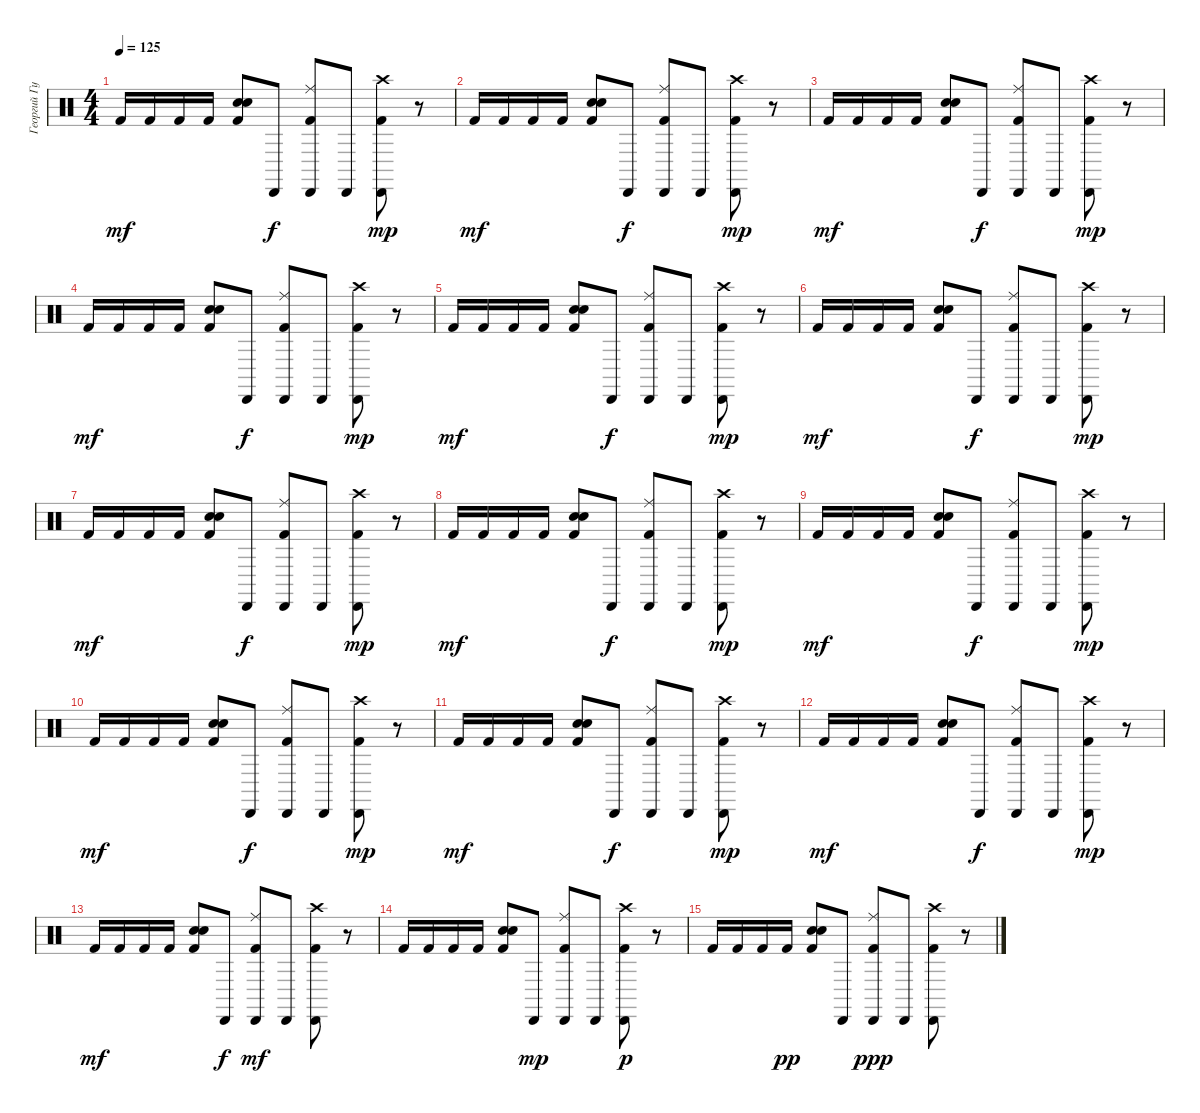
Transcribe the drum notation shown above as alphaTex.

\track ("Георгий Гурьянов" "Георгий Гу") {instrument percussion}
\staff {score}
\articulation defaults
\ts (4 4)
\tempo 125
\clef neutral
\ks c "Kick (hit) 2".16{dy mf} "Kick (hit) 2".16 "Kick (hit) 2".16 "Kick (hit) 2".16
("Kick (hit) 2" "Snare (hit) 2" "Electric Snare (hit)").8 "Cabasa (hit)".8{dy f} ("Kick (hit) 2" "Cabasa (hit)" "Ride (middle)").8 "Cabasa (hit)".8 ("Kick (hit) 2" "Cabasa (hit)" "Crash high (hit)").8{dy mp} r.8 |
"Kick (hit) 2".16{dy mf} "Kick (hit) 2".16 "Kick (hit) 2".16 "Kick (hit) 2".16 ("Kick (hit) 2" "Snare (hit) 2" "Electric Snare (hit)").8 "Cabasa (hit)".8{dy f} ("Kick (hit) 2" "Cabasa (hit)" "Ride (middle)").8 "Cabasa (hit)".8 ("Kick (hit) 2" "Cabasa (hit)" "Crash high (hit)").8{dy mp} r.8 |
"Kick (hit) 2".16{dy mf} "Kick (hit) 2".16 "Kick (hit) 2".16 "Kick (hit) 2".16 ("Kick (hit) 2" "Snare (hit) 2" "Electric Snare (hit)").8 "Cabasa (hit)".8{dy f} ("Kick (hit) 2" "Cabasa (hit)" "Ride (middle)").8 "Cabasa (hit)".8 ("Kick (hit) 2" "Cabasa (hit)" "Crash high (hit)").8{dy mp} r.8 |
"Kick (hit) 2".16{dy mf} "Kick (hit) 2".16 "Kick (hit) 2".16 "Kick (hit) 2".16 ("Kick (hit) 2" "Snare (hit) 2" "Electric Snare (hit)").8 "Cabasa (hit)".8{dy f} ("Kick (hit) 2" "Cabasa (hit)" "Ride (middle)").8 "Cabasa (hit)".8 ("Kick (hit) 2" "Cabasa (hit)" "Crash high (hit)").8{dy mp} r.8 |
"Kick (hit) 2".16{dy mf} "Kick (hit) 2".16 "Kick (hit) 2".16 "Kick (hit) 2".16 ("Kick (hit) 2" "Snare (hit) 2" "Electric Snare (hit)").8 "Cabasa (hit)".8{dy f} ("Kick (hit) 2" "Cabasa (hit)" "Ride (middle)").8 "Cabasa (hit)".8 ("Kick (hit) 2" "Cabasa (hit)" "Crash high (hit)").8{dy mp} r.8 |
"Kick (hit) 2".16{dy mf} "Kick (hit) 2".16 "Kick (hit) 2".16 "Kick (hit) 2".16 ("Kick (hit) 2" "Snare (hit) 2" "Electric Snare (hit)").8 "Cabasa (hit)".8{dy f} ("Kick (hit) 2" "Cabasa (hit)" "Ride (middle)").8 "Cabasa (hit)".8 ("Kick (hit) 2" "Cabasa (hit)" "Crash high (hit)").8{dy mp} r.8 |
"Kick (hit) 2".16{dy mf} "Kick (hit) 2".16 "Kick (hit) 2".16 "Kick (hit) 2".16 ("Kick (hit) 2" "Snare (hit) 2" "Electric Snare (hit)").8 "Cabasa (hit)".8{dy f} ("Kick (hit) 2" "Cabasa (hit)" "Ride (middle)").8 "Cabasa (hit)".8 ("Kick (hit) 2" "Cabasa (hit)" "Crash high (hit)").8{dy mp} r.8 |
"Kick (hit) 2".16{dy mf} "Kick (hit) 2".16 "Kick (hit) 2".16 "Kick (hit) 2".16 ("Kick (hit) 2" "Snare (hit) 2" "Electric Snare (hit)").8 "Cabasa (hit)".8{dy f} ("Kick (hit) 2" "Cabasa (hit)" "Ride (middle)").8 "Cabasa (hit)".8 ("Kick (hit) 2" "Cabasa (hit)" "Crash high (hit)").8{dy mp} r.8 |
"Kick (hit) 2".16{dy mf} "Kick (hit) 2".16 "Kick (hit) 2".16 "Kick (hit) 2".16 ("Kick (hit) 2" "Snare (hit) 2" "Electric Snare (hit)").8 "Cabasa (hit)".8{dy f} ("Kick (hit) 2" "Cabasa (hit)" "Ride (middle)").8 "Cabasa (hit)".8 ("Kick (hit) 2" "Cabasa (hit)" "Crash high (hit)").8{dy mp} r.8 |
"Kick (hit) 2".16{dy mf} "Kick (hit) 2".16 "Kick (hit) 2".16 "Kick (hit) 2".16 ("Kick (hit) 2" "Snare (hit) 2" "Electric Snare (hit)").8 "Cabasa (hit)".8{dy f} ("Kick (hit) 2" "Cabasa (hit)" "Ride (middle)").8 "Cabasa (hit)".8 ("Kick (hit) 2" "Cabasa (hit)" "Crash high (hit)").8{dy mp} r.8 |
"Kick (hit) 2".16{dy mf} "Kick (hit) 2".16 "Kick (hit) 2".16 "Kick (hit) 2".16 ("Kick (hit) 2" "Snare (hit) 2" "Electric Snare (hit)").8 "Cabasa (hit)".8{dy f} ("Kick (hit) 2" "Cabasa (hit)" "Ride (middle)").8 "Cabasa (hit)".8 ("Kick (hit) 2" "Cabasa (hit)" "Crash high (hit)").8{dy mp} r.8 |
"Kick (hit) 2".16{dy mf} "Kick (hit) 2".16 "Kick (hit) 2".16 "Kick (hit) 2".16 ("Kick (hit) 2" "Snare (hit) 2" "Electric Snare (hit)").8 "Cabasa (hit)".8{dy f} ("Kick (hit) 2" "Cabasa (hit)" "Ride (middle)").8 "Cabasa (hit)".8 ("Kick (hit) 2" "Cabasa (hit)" "Crash high (hit)").8{dy mp} r.8 |
"Kick (hit) 2".16{dy mf} "Kick (hit) 2".16 "Kick (hit) 2".16 "Kick (hit) 2".16 ("Kick (hit) 2" "Snare (hit) 2" "Electric Snare (hit)").8 "Cabasa (hit)".8{dy f} ("Kick (hit) 2" "Cabasa (hit)" "Ride (middle)").8{dy mf} "Cabasa (hit)".8 ("Kick (hit) 2" "Cabasa (hit)" "Crash high (hit)").8 r.8 |
"Kick (hit) 2".16 "Kick (hit) 2".16 "Kick (hit) 2".16 "Kick (hit) 2".16 ("Kick (hit) 2" "Snare (hit) 2" "Electric Snare (hit)").8 "Cabasa (hit)".8{dy mp} ("Kick (hit) 2" "Cabasa (hit)" "Ride (middle)").8 "Cabasa (hit)".8 ("Kick (hit) 2" "Cabasa (hit)" "Crash high (hit)").8{dy p} r.8 |
"Kick (hit) 2".16 "Kick (hit) 2".16 "Kick (hit) 2".16 "Kick (hit) 2".16{dy pp} ("Kick (hit) 2" "Snare (hit) 2" "Electric Snare (hit)").8 "Cabasa (hit)".8 ("Kick (hit) 2" "Cabasa (hit)" "Ride (middle)").8{dy ppp} "Cabasa (hit)".8 ("Kick (hit) 2" "Cabasa (hit)" "Crash high (hit)").8 r.8
